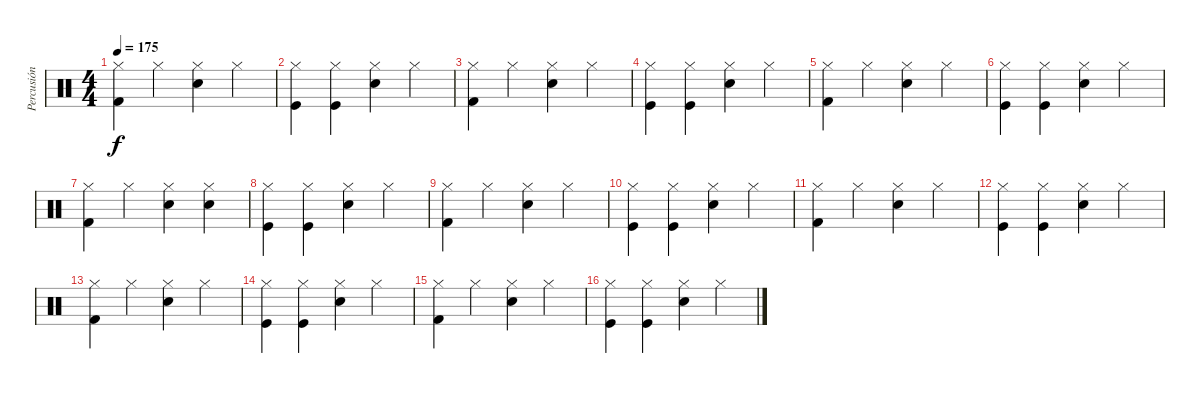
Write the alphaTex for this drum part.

\track ("Percusión" "Percusión") {instrument percussion}
\staff {score}
\articulation defaults
\ts (4 4)
\tempo 175
\clef neutral
\ks c
("Hi-Hat (closed)" "Kick (hit) 2").4{dy f} "Hi-Hat (closed)".4 ("Snare (hit) 2" "Hi-Hat (closed)").4 "Hi-Hat (closed)".4 |
("Kick (hit)" "Hi-Hat (closed)").4 ("Kick (hit)" "Hi-Hat (closed)").4 ("Electric Snare (hit)" "Hi-Hat (closed)").4 "Hi-Hat (closed)".4 |
("Hi-Hat (closed)" "Kick (hit) 2").4 "Hi-Hat (closed)".4 ("Snare (hit) 2" "Hi-Hat (closed)").4 "Hi-Hat (closed)".4 |
("Kick (hit)" "Hi-Hat (closed)").4 ("Kick (hit)" "Hi-Hat (closed)").4 ("Electric Snare (hit)" "Hi-Hat (closed)").4 "Hi-Hat (closed)".4 |
("Hi-Hat (closed)" "Kick (hit) 2").4 "Hi-Hat (closed)".4 ("Snare (hit) 2" "Hi-Hat (closed)").4 "Hi-Hat (closed)".4 |
("Kick (hit)" "Hi-Hat (closed)").4 ("Kick (hit)" "Hi-Hat (closed)").4 ("Electric Snare (hit)" "Hi-Hat (closed)").4 "Hi-Hat (closed)".4 |
("Hi-Hat (closed)" "Kick (hit) 2").4 "Hi-Hat (closed)".4 ("Snare (hit) 2" "Hi-Hat (closed)").4 ("Hi-Hat (closed)" "Snare (hit) 2").4 |
("Kick (hit)" "Hi-Hat (closed)").4 ("Kick (hit)" "Hi-Hat (closed)").4 ("Electric Snare (hit)" "Hi-Hat (closed)").4 "Hi-Hat (closed)".4 |
("Hi-Hat (closed)" "Kick (hit) 2").4 "Hi-Hat (closed)".4 ("Snare (hit) 2" "Hi-Hat (closed)").4 "Hi-Hat (closed)".4 |
("Kick (hit)" "Hi-Hat (closed)").4 ("Kick (hit)" "Hi-Hat (closed)").4 ("Electric Snare (hit)" "Hi-Hat (closed)").4 "Hi-Hat (closed)".4 |
("Hi-Hat (closed)" "Kick (hit) 2").4 "Hi-Hat (closed)".4 ("Snare (hit) 2" "Hi-Hat (closed)").4 "Hi-Hat (closed)".4 |
("Kick (hit)" "Hi-Hat (closed)").4 ("Kick (hit)" "Hi-Hat (closed)").4 ("Electric Snare (hit)" "Hi-Hat (closed)").4 "Hi-Hat (closed)".4 |
("Hi-Hat (closed)" "Kick (hit) 2").4 "Hi-Hat (closed)".4 ("Snare (hit) 2" "Hi-Hat (closed)").4 "Hi-Hat (closed)".4 |
("Kick (hit)" "Hi-Hat (closed)").4 ("Kick (hit)" "Hi-Hat (closed)").4 ("Electric Snare (hit)" "Hi-Hat (closed)").4 "Hi-Hat (closed)".4 |
("Hi-Hat (closed)" "Kick (hit) 2").4 "Hi-Hat (closed)".4 ("Snare (hit) 2" "Hi-Hat (closed)").4 "Hi-Hat (closed)".4 |
("Kick (hit)" "Hi-Hat (closed)").4 ("Kick (hit)" "Hi-Hat (closed)").4 ("Electric Snare (hit)" "Hi-Hat (closed)").4 "Hi-Hat (closed)".4
